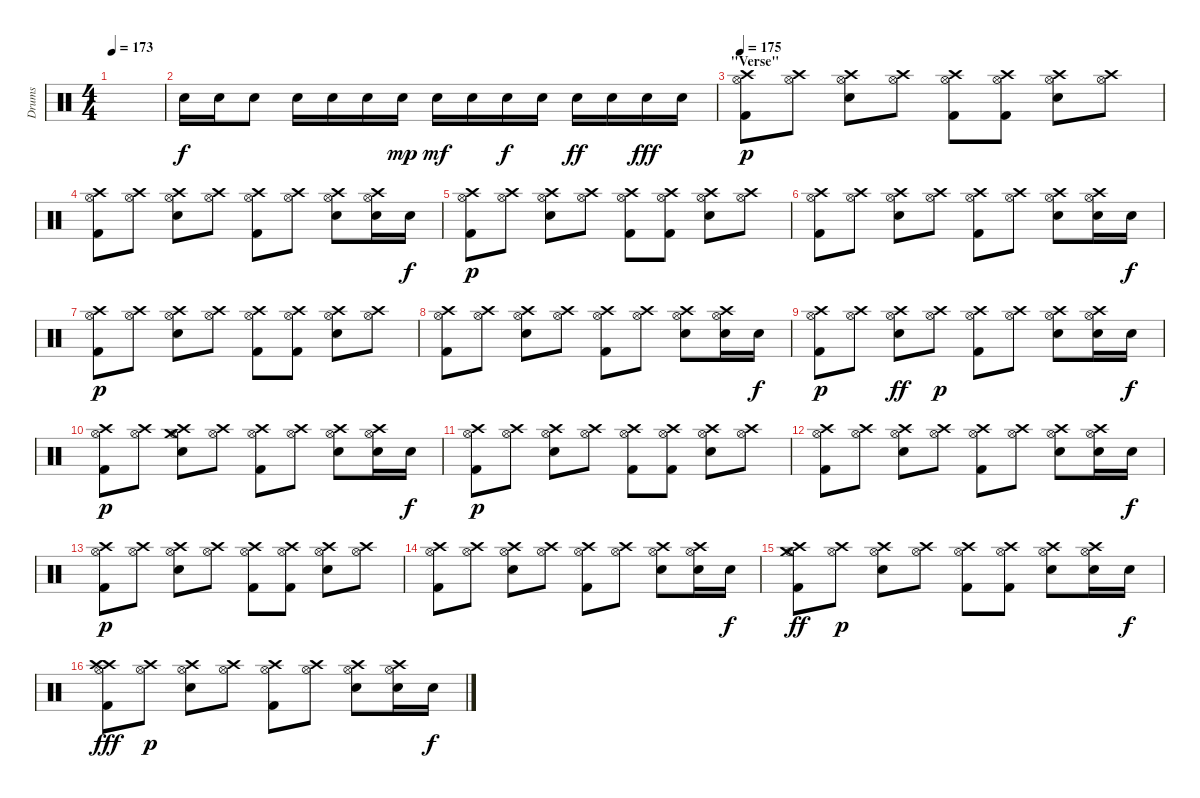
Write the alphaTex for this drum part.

\track ("Drums" "Drums") {instrument percussion}
\staff {score}
\articulation defaults
\ts (4 4)
\tempo 173
\clef neutral
\ks c
|
"Snare (hit) 2".16 "Snare (hit) 2".16 "Snare (hit) 2".8{dy f} "Snare (hit) 2".16 "Snare (hit) 2".16 "Snare (hit) 2".16 "Snare (hit) 2".16{dy mp} "Snare (hit) 2".16{dy mf} "Snare (hit) 2".16 "Snare (hit) 2".16{dy f} "Snare (hit) 2".16 "Snare (hit) 2".16{dy ff} "Snare (hit) 2".16 "Snare (hit) 2".16{dy fff} "Snare (hit) 2".16 |
\section ("" "\"Verse\"")
\tempo 175
("Hi-Hat (open)" "Crash high (hit)" "Kick (hit) 2").8{dy p} ("Hi-Hat (open)" "Crash high (hit)").8 ("Hi-Hat (open)" "Crash high (hit)" "Electric Snare (hit)").8 ("Hi-Hat (open)" "Crash high (hit)").8 ("Hi-Hat (open)" "Crash high (hit)" "Kick (hit) 2").8 ("Hi-Hat (open)" "Crash high (hit)" "Kick (hit) 2").8 ("Hi-Hat (open)" "Crash high (hit)" "Electric Snare (hit)").8 ("Hi-Hat (open)" "Crash high (hit)").8 |
("Hi-Hat (open)" "Crash high (hit)" "Kick (hit) 2").8 ("Hi-Hat (open)" "Crash high (hit)").8 ("Hi-Hat (open)" "Crash high (hit)" "Electric Snare (hit)").8 ("Hi-Hat (open)" "Crash high (hit)").8 ("Hi-Hat (open)" "Crash high (hit)" "Kick (hit) 2").8 ("Hi-Hat (open)" "Crash high (hit)").8 ("Hi-Hat (open)" "Crash high (hit)" "Electric Snare (hit)").8 ("Hi-Hat (open)" "Crash high (hit)" "Electric Snare (hit)").16 "Electric Snare (hit)".16{dy f} |
("Hi-Hat (open)" "Crash high (hit)" "Kick (hit) 2").8{dy p} ("Hi-Hat (open)" "Crash high (hit)").8 ("Hi-Hat (open)" "Crash high (hit)" "Electric Snare (hit)").8 ("Hi-Hat (open)" "Crash high (hit)").8 ("Hi-Hat (open)" "Crash high (hit)" "Kick (hit) 2").8 ("Hi-Hat (open)" "Crash high (hit)" "Kick (hit) 2").8 ("Hi-Hat (open)" "Crash high (hit)" "Electric Snare (hit)").8 ("Hi-Hat (open)" "Crash high (hit)").8 |
("Hi-Hat (open)" "Crash high (hit)" "Kick (hit) 2").8 ("Hi-Hat (open)" "Crash high (hit)").8 ("Hi-Hat (open)" "Crash high (hit)" "Electric Snare (hit)").8 ("Hi-Hat (open)" "Crash high (hit)").8 ("Hi-Hat (open)" "Crash high (hit)" "Kick (hit) 2").8 ("Hi-Hat (open)" "Crash high (hit)").8 ("Hi-Hat (open)" "Crash high (hit)" "Electric Snare (hit)").8 ("Hi-Hat (open)" "Crash high (hit)" "Electric Snare (hit)").16 "Electric Snare (hit)".16{dy f} |
("Hi-Hat (open)" "Crash high (hit)" "Kick (hit) 2").8{dy p} ("Hi-Hat (open)" "Crash high (hit)").8 ("Hi-Hat (open)" "Crash high (hit)" "Electric Snare (hit)").8 ("Hi-Hat (open)" "Crash high (hit)").8 ("Hi-Hat (open)" "Crash high (hit)" "Kick (hit) 2").8 ("Hi-Hat (open)" "Crash high (hit)" "Kick (hit) 2").8 ("Hi-Hat (open)" "Crash high (hit)" "Electric Snare (hit)").8 ("Hi-Hat (open)" "Crash high (hit)").8 |
("Hi-Hat (open)" "Crash high (hit)" "Kick (hit) 2").8 ("Hi-Hat (open)" "Crash high (hit)").8 ("Hi-Hat (open)" "Crash high (hit)" "Electric Snare (hit)").8 ("Hi-Hat (open)" "Crash high (hit)").8 ("Hi-Hat (open)" "Crash high (hit)" "Kick (hit) 2").8 ("Hi-Hat (open)" "Crash high (hit)").8 ("Hi-Hat (open)" "Crash high (hit)" "Electric Snare (hit)").8 ("Hi-Hat (open)" "Crash high (hit)" "Electric Snare (hit)").16 "Electric Snare (hit)".16{dy f} |
("Hi-Hat (open)" "Crash high (hit)" "Kick (hit) 2").8{dy p} ("Hi-Hat (open)" "Crash high (hit)").8 ("Hi-Hat (open)" "Crash high (hit)" "Electric Snare (hit)").8{dy ff} ("Hi-Hat (open)" "Crash high (hit)").8{dy p} ("Hi-Hat (open)" "Crash high (hit)" "Kick (hit) 2").8 ("Hi-Hat (open)" "Crash high (hit)").8 ("Hi-Hat (open)" "Crash high (hit)" "Electric Snare (hit)").8 ("Hi-Hat (open)" "Crash high (hit)" "Electric Snare (hit)").16 "Electric Snare (hit)".16{dy f} |
("Hi-Hat (open)" "Crash high (hit)" "Kick (hit) 2").8{dy p} ("Hi-Hat (open)" "Crash high (hit)").8 ("Hi-Hat (open)" "Crash high (hit)" "Crash medium (hit)" "Electric Snare (hit)").8 ("Hi-Hat (open)" "Crash high (hit)").8 ("Hi-Hat (open)" "Crash high (hit)" "Kick (hit) 2").8 ("Hi-Hat (open)" "Crash high (hit)").8 ("Hi-Hat (open)" "Crash high (hit)" "Electric Snare (hit)").8 ("Hi-Hat (open)" "Crash high (hit)" "Electric Snare (hit)").16 "Electric Snare (hit)".16{dy f} |
("Hi-Hat (open)" "Crash high (hit)" "Kick (hit) 2").8{dy p} ("Hi-Hat (open)" "Crash high (hit)").8 ("Hi-Hat (open)" "Crash high (hit)" "Electric Snare (hit)").8 ("Hi-Hat (open)" "Crash high (hit)").8 ("Hi-Hat (open)" "Crash high (hit)" "Kick (hit) 2").8 ("Hi-Hat (open)" "Crash high (hit)" "Kick (hit) 2").8 ("Hi-Hat (open)" "Crash high (hit)" "Electric Snare (hit)").8 ("Hi-Hat (open)" "Crash high (hit)").8 |
("Hi-Hat (open)" "Crash high (hit)" "Kick (hit) 2").8 ("Hi-Hat (open)" "Crash high (hit)").8 ("Hi-Hat (open)" "Crash high (hit)" "Electric Snare (hit)").8 ("Hi-Hat (open)" "Crash high (hit)").8 ("Hi-Hat (open)" "Crash high (hit)" "Kick (hit) 2").8 ("Hi-Hat (open)" "Crash high (hit)").8 ("Hi-Hat (open)" "Crash high (hit)" "Electric Snare (hit)").8 ("Hi-Hat (open)" "Crash high (hit)" "Electric Snare (hit)").16 "Electric Snare (hit)".16{dy f} |
("Hi-Hat (open)" "Crash high (hit)" "Kick (hit) 2").8{dy p} ("Hi-Hat (open)" "Crash high (hit)").8 ("Hi-Hat (open)" "Crash high (hit)" "Electric Snare (hit)").8 ("Hi-Hat (open)" "Crash high (hit)").8 ("Hi-Hat (open)" "Crash high (hit)" "Kick (hit) 2").8 ("Hi-Hat (open)" "Crash high (hit)" "Kick (hit) 2").8 ("Hi-Hat (open)" "Crash high (hit)" "Electric Snare (hit)").8 ("Hi-Hat (open)" "Crash high (hit)").8 |
("Hi-Hat (open)" "Crash high (hit)" "Kick (hit) 2").8 ("Hi-Hat (open)" "Crash high (hit)").8 ("Hi-Hat (open)" "Crash high (hit)" "Electric Snare (hit)").8 ("Hi-Hat (open)" "Crash high (hit)").8 ("Hi-Hat (open)" "Crash high (hit)" "Kick (hit) 2").8 ("Hi-Hat (open)" "Crash high (hit)").8 ("Hi-Hat (open)" "Crash high (hit)" "Electric Snare (hit)").8 ("Hi-Hat (open)" "Crash high (hit)" "Electric Snare (hit)").16 "Electric Snare (hit)".16{dy f} |
("Hi-Hat (open)" "Crash high (hit)" "Crash medium (hit)" "Kick (hit) 2").8{dy ff} ("Hi-Hat (open)" "Crash high (hit)").8{dy p} ("Hi-Hat (open)" "Crash high (hit)" "Electric Snare (hit)").8 ("Hi-Hat (open)" "Crash high (hit)").8 ("Hi-Hat (open)" "Crash high (hit)" "Kick (hit) 2").8 ("Hi-Hat (open)" "Crash high (hit)" "Kick (hit) 2").8 ("Hi-Hat (open)" "Crash high (hit)" "Electric Snare (hit)").8 ("Hi-Hat (open)" "Crash high (hit)" "Electric Snare (hit)").16 "Electric Snare (hit)".16{dy f} |
("Hi-Hat (open)" "Crash high (hit)" "Crash high (hit)" "Kick (hit) 2").8{dy fff} ("Hi-Hat (open)" "Crash high (hit)").8{dy p} ("Hi-Hat (open)" "Crash high (hit)" "Electric Snare (hit)").8 ("Hi-Hat (open)" "Crash high (hit)").8 ("Hi-Hat (open)" "Crash high (hit)" "Kick (hit) 2").8 ("Hi-Hat (open)" "Crash high (hit)").8 ("Hi-Hat (open)" "Crash high (hit)" "Electric Snare (hit)").8 ("Hi-Hat (open)" "Crash high (hit)" "Electric Snare (hit)").16 "Electric Snare (hit)".16{dy f}
